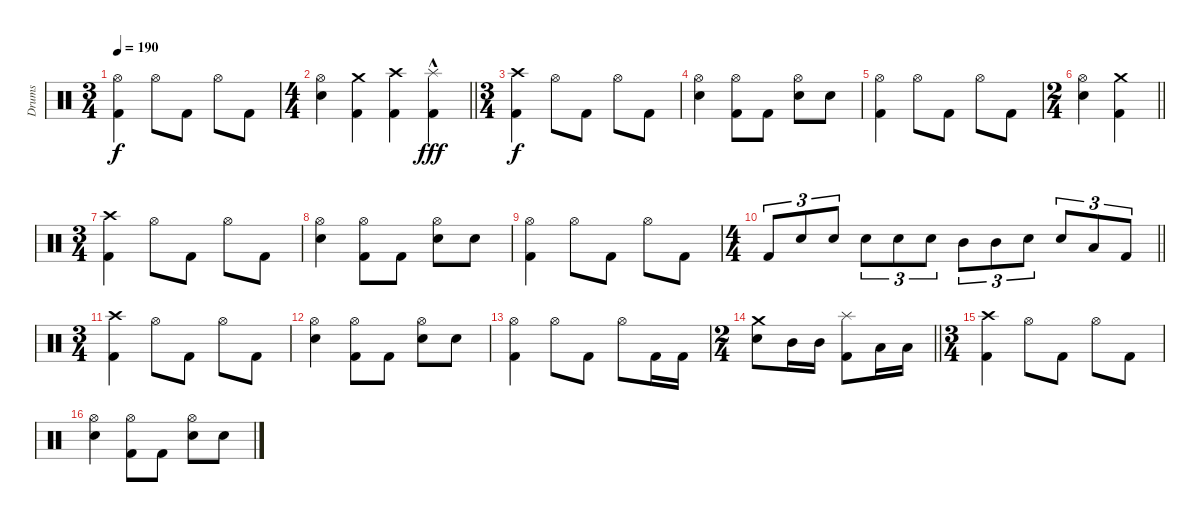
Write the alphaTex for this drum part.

\track ("Drums" "Drums") {instrument percussion}
\staff {score}
\articulation defaults
\ts (3 4)
\tempo 190
\clef neutral
\ks c
("Hi-Hat (open)" "Kick (hit) 2").4{dy f} "Hi-Hat (open)".8 "Kick (hit) 2".8 "Hi-Hat (open)".8 "Kick (hit) 2".8 |
\ts (4 4)
\barLineRight lightlight
("Hi-Hat (open)" "Electric Snare (hit)").4 ("Crash medium (hit)" "Kick (hit) 2").4 ("Crash high (hit)" "Kick (hit) 2").4 ("Splash (hit)"{hac} "Kick (hit) 2").4{dy fff} |
\ts (3 4)
("Crash high (hit)" "Kick (hit) 2").4{dy f} "Hi-Hat (open)".8 "Kick (hit) 2".8 "Hi-Hat (open)".8 "Kick (hit) 2".8 |
("Hi-Hat (open)" "Electric Snare (hit)").4 ("Hi-Hat (open)" "Kick (hit) 2").8 "Kick (hit) 2".8 ("Hi-Hat (open)" "Electric Snare (hit)").8 "Electric Snare (hit)".8 |
("Hi-Hat (open)" "Kick (hit) 2").4 "Hi-Hat (open)".8 "Kick (hit) 2".8 "Hi-Hat (open)".8 "Kick (hit) 2".8 |
\ts (2 4)
\barLineRight lightlight
("Hi-Hat (open)" "Electric Snare (hit)").4 ("Crash medium (hit)" "Kick (hit) 2").4 |
\ts (3 4)
("Crash high (hit)" "Kick (hit) 2").4 "Hi-Hat (open)".8 "Kick (hit) 2".8 "Hi-Hat (open)".8 "Kick (hit) 2".8 |
("Hi-Hat (open)" "Electric Snare (hit)").4 ("Hi-Hat (open)" "Kick (hit) 2").8 "Kick (hit) 2".8 ("Hi-Hat (open)" "Electric Snare (hit)").8 "Electric Snare (hit)".8 |
("Hi-Hat (open)" "Kick (hit) 2").4 "Hi-Hat (open)".8 "Kick (hit) 2".8 "Hi-Hat (open)".8 "Kick (hit) 2".8 |
\ts (4 4)
\barLineRight lightlight "Kick (hit) 2".8{tu (3 2)} "Electric Snare (hit)".8{tu (3 2)} "Electric Snare (hit)".8{tu (3 2)} "Electric Snare (hit)".8{tu (3 2)} "Electric Snare (hit)".8{tu (3 2)} "Electric Snare (hit)".8{tu (3 2)} "Mid Tom (hit)".8{tu (3 2)} "Mid Tom (hit)".8{tu (3 2)} "Electric Snare (hit)".8{tu (3 2)} "Electric Snare (hit)".8{tu (3 2)} "Low Tom (hit)".8{tu (3 2)} "Kick (hit) 2".8{tu (3 2)}
|
\ts (3 4)
("Crash high (hit)" "Kick (hit) 2").4 "Hi-Hat (open)".8 "Kick (hit) 2".8 "Hi-Hat (open)".8 "Kick (hit) 2".8 |
("Hi-Hat (open)" "Electric Snare (hit)").4 ("Hi-Hat (open)" "Kick (hit) 2").8 "Kick (hit) 2".8 ("Hi-Hat (open)" "Electric Snare (hit)").8 "Electric Snare (hit)".8 |
("Hi-Hat (open)" "Kick (hit) 2").4 "Hi-Hat (open)".8 "Kick (hit) 2".8 "Hi-Hat (open)".8 "Kick (hit) 2".16 "Kick (hit) 2".16 |
\ts (2 4)
\barLineRight lightlight
("Crash medium (hit)" "Electric Snare (hit)").8 "Mid Tom (hit)".16 "Mid Tom (hit)".16 ("Splash (hit)" "Kick (hit) 2").8 "Low Tom (hit)".16 "Low Tom (hit)".16 |
\ts (3 4)
("Crash high (hit)" "Kick (hit) 2").4 "Hi-Hat (open)".8 "Kick (hit) 2".8 "Hi-Hat (open)".8 "Kick (hit) 2".8 |
("Hi-Hat (open)" "Electric Snare (hit)").4 ("Hi-Hat (open)" "Kick (hit) 2").8 "Kick (hit) 2".8 ("Hi-Hat (open)" "Electric Snare (hit)").8 "Electric Snare (hit)".8
